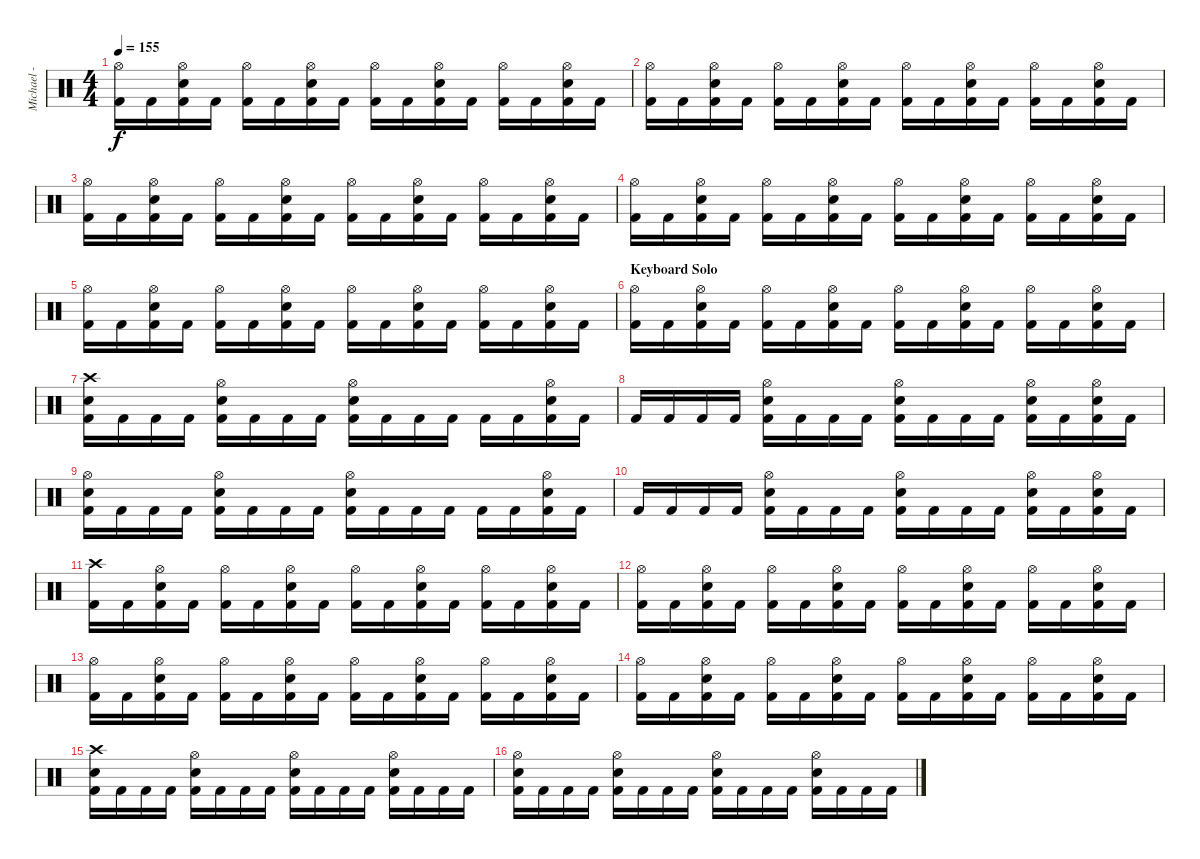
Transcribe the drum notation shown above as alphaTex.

\track ("Michael - Drums" "Michael - ") {instrument percussion}
\staff {score}
\articulation defaults
\ts (4 4)
\tempo 155
\clef neutral
\ks c
("Hi-Hat (open)" "Kick (hit) 2").16{dy f} "Kick (hit) 2".16 ("Hi-Hat (open)" "Electric Snare (hit)" "Kick (hit) 2").16 "Kick (hit) 2".16 ("Hi-Hat (open)" "Kick (hit) 2").16 "Kick (hit) 2".16 ("Hi-Hat (open)" "Electric Snare (hit)" "Kick (hit) 2").16 "Kick (hit) 2".16 ("Hi-Hat (open)" "Kick (hit) 2").16 "Kick (hit) 2".16 ("Hi-Hat (open)" "Electric Snare (hit)" "Kick (hit) 2").16 "Kick (hit) 2".16 ("Hi-Hat (open)" "Kick (hit) 2").16 "Kick (hit) 2".16 ("Hi-Hat (open)" "Electric Snare (hit)" "Kick (hit) 2").16 "Kick (hit) 2".16 |
("Hi-Hat (open)" "Kick (hit) 2").16 "Kick (hit) 2".16 ("Hi-Hat (open)" "Electric Snare (hit)" "Kick (hit) 2").16 "Kick (hit) 2".16 ("Hi-Hat (open)" "Kick (hit) 2").16 "Kick (hit) 2".16 ("Hi-Hat (open)" "Electric Snare (hit)" "Kick (hit) 2").16 "Kick (hit) 2".16 ("Hi-Hat (open)" "Kick (hit) 2").16 "Kick (hit) 2".16 ("Hi-Hat (open)" "Electric Snare (hit)" "Kick (hit) 2").16 "Kick (hit) 2".16 ("Hi-Hat (open)" "Kick (hit) 2").16 "Kick (hit) 2".16 ("Hi-Hat (open)" "Electric Snare (hit)" "Kick (hit) 2").16 "Kick (hit) 2".16 |
("Hi-Hat (open)" "Kick (hit) 2").16 "Kick (hit) 2".16 ("Hi-Hat (open)" "Electric Snare (hit)" "Kick (hit) 2").16 "Kick (hit) 2".16 ("Hi-Hat (open)" "Kick (hit) 2").16 "Kick (hit) 2".16 ("Hi-Hat (open)" "Electric Snare (hit)" "Kick (hit) 2").16 "Kick (hit) 2".16 ("Hi-Hat (open)" "Kick (hit) 2").16 "Kick (hit) 2".16 ("Hi-Hat (open)" "Electric Snare (hit)" "Kick (hit) 2").16 "Kick (hit) 2".16 ("Hi-Hat (open)" "Kick (hit) 2").16 "Kick (hit) 2".16 ("Hi-Hat (open)" "Electric Snare (hit)" "Kick (hit) 2").16 "Kick (hit) 2".16 |
("Hi-Hat (open)" "Kick (hit) 2").16 "Kick (hit) 2".16 ("Hi-Hat (open)" "Electric Snare (hit)" "Kick (hit) 2").16 "Kick (hit) 2".16 ("Hi-Hat (open)" "Kick (hit) 2").16 "Kick (hit) 2".16 ("Hi-Hat (open)" "Electric Snare (hit)" "Kick (hit) 2").16 "Kick (hit) 2".16 ("Hi-Hat (open)" "Kick (hit) 2").16 "Kick (hit) 2".16 ("Hi-Hat (open)" "Electric Snare (hit)" "Kick (hit) 2").16 "Kick (hit) 2".16 ("Hi-Hat (open)" "Kick (hit) 2").16 "Kick (hit) 2".16 ("Hi-Hat (open)" "Electric Snare (hit)" "Kick (hit) 2").16 "Kick (hit) 2".16 |
("Hi-Hat (open)" "Kick (hit) 2").16 "Kick (hit) 2".16 ("Hi-Hat (open)" "Electric Snare (hit)" "Kick (hit) 2").16 "Kick (hit) 2".16 ("Hi-Hat (open)" "Kick (hit) 2").16 "Kick (hit) 2".16 ("Hi-Hat (open)" "Electric Snare (hit)" "Kick (hit) 2").16 "Kick (hit) 2".16 ("Hi-Hat (open)" "Kick (hit) 2").16 "Kick (hit) 2".16 ("Hi-Hat (open)" "Electric Snare (hit)" "Kick (hit) 2").16 "Kick (hit) 2".16 ("Hi-Hat (open)" "Kick (hit) 2").16 "Kick (hit) 2".16 ("Hi-Hat (open)" "Electric Snare (hit)" "Kick (hit) 2").16 "Kick (hit) 2".16 |
\section ("" "Keyboard Solo")
("Hi-Hat (open)" "Kick (hit) 2").16 "Kick (hit) 2".16 ("Hi-Hat (open)" "Electric Snare (hit)" "Kick (hit) 2").16 "Kick (hit) 2".16 ("Hi-Hat (open)" "Kick (hit) 2").16 "Kick (hit) 2".16 ("Hi-Hat (open)" "Electric Snare (hit)" "Kick (hit) 2").16 "Kick (hit) 2".16 ("Hi-Hat (open)" "Kick (hit) 2").16 "Kick (hit) 2".16 ("Hi-Hat (open)" "Electric Snare (hit)" "Kick (hit) 2").16 "Kick (hit) 2".16 ("Hi-Hat (open)" "Kick (hit) 2").16 "Kick (hit) 2".16 ("Hi-Hat (open)" "Electric Snare (hit)" "Kick (hit) 2").16 "Kick (hit) 2".16 |
("Crash high (hit)" "Electric Snare (hit)" "Kick (hit) 2").16 "Kick (hit) 2".16 "Kick (hit) 2".16 "Kick (hit) 2".16 ("Hi-Hat (open)" "Electric Snare (hit)" "Kick (hit) 2").16 "Kick (hit) 2".16 "Kick (hit) 2".16 "Kick (hit) 2".16 ("Hi-Hat (open)" "Electric Snare (hit)" "Kick (hit) 2").16 "Kick (hit) 2".16 "Kick (hit) 2".16 "Kick (hit) 2".16 "Kick (hit) 2".16 "Kick (hit) 2".16 ("Hi-Hat (open)" "Electric Snare (hit)" "Kick (hit) 2").16 "Kick (hit) 2".16 |
"Kick (hit) 2".16 "Kick (hit) 2".16 "Kick (hit) 2".16 "Kick (hit) 2".16 ("Hi-Hat (open)" "Electric Snare (hit)" "Kick (hit) 2").16 "Kick (hit) 2".16 "Kick (hit) 2".16 "Kick (hit) 2".16 ("Hi-Hat (open)" "Electric Snare (hit)" "Kick (hit) 2").16 "Kick (hit) 2".16 "Kick (hit) 2".16 "Kick (hit) 2".16 ("Hi-Hat (open)" "Electric Snare (hit)" "Kick (hit) 2").16 "Kick (hit) 2".16 ("Hi-Hat (open)" "Electric Snare (hit)" "Kick (hit) 2").16 "Kick (hit) 2".16 |
("Hi-Hat (open)" "Electric Snare (hit)" "Kick (hit) 2").16 "Kick (hit) 2".16 "Kick (hit) 2".16 "Kick (hit) 2".16 ("Hi-Hat (open)" "Electric Snare (hit)" "Kick (hit) 2").16 "Kick (hit) 2".16 "Kick (hit) 2".16 "Kick (hit) 2".16 ("Hi-Hat (open)" "Electric Snare (hit)" "Kick (hit) 2").16 "Kick (hit) 2".16 "Kick (hit) 2".16 "Kick (hit) 2".16 "Kick (hit) 2".16 "Kick (hit) 2".16 ("Hi-Hat (open)" "Electric Snare (hit)" "Kick (hit) 2").16 "Kick (hit) 2".16 |
"Kick (hit) 2".16 "Kick (hit) 2".16 "Kick (hit) 2".16 "Kick (hit) 2".16 ("Hi-Hat (open)" "Electric Snare (hit)" "Kick (hit) 2").16 "Kick (hit) 2".16 "Kick (hit) 2".16 "Kick (hit) 2".16 ("Hi-Hat (open)" "Electric Snare (hit)" "Kick (hit) 2").16 "Kick (hit) 2".16 "Kick (hit) 2".16 "Kick (hit) 2".16 ("Hi-Hat (open)" "Electric Snare (hit)" "Kick (hit) 2").16 "Kick (hit) 2".16 ("Hi-Hat (open)" "Electric Snare (hit)" "Kick (hit) 2").16 "Kick (hit) 2".16 |
("Crash high (hit)" "Kick (hit) 2").16 "Kick (hit) 2".16 ("Hi-Hat (open)" "Electric Snare (hit)" "Kick (hit) 2").16 "Kick (hit) 2".16 ("Hi-Hat (open)" "Kick (hit) 2").16 "Kick (hit) 2".16 ("Hi-Hat (open)" "Electric Snare (hit)" "Kick (hit) 2").16 "Kick (hit) 2".16 ("Hi-Hat (open)" "Kick (hit) 2").16 "Kick (hit) 2".16 ("Hi-Hat (open)" "Electric Snare (hit)" "Kick (hit) 2").16 "Kick (hit) 2".16 ("Hi-Hat (open)" "Kick (hit) 2").16 "Kick (hit) 2".16 ("Hi-Hat (open)" "Electric Snare (hit)" "Kick (hit) 2").16 "Kick (hit) 2".16 |
("Hi-Hat (open)" "Kick (hit) 2").16 "Kick (hit) 2".16 ("Hi-Hat (open)" "Electric Snare (hit)" "Kick (hit) 2").16 "Kick (hit) 2".16 ("Hi-Hat (open)" "Kick (hit) 2").16 "Kick (hit) 2".16 ("Hi-Hat (open)" "Electric Snare (hit)" "Kick (hit) 2").16 "Kick (hit) 2".16 ("Hi-Hat (open)" "Kick (hit) 2").16 "Kick (hit) 2".16 ("Hi-Hat (open)" "Electric Snare (hit)" "Kick (hit) 2").16 "Kick (hit) 2".16 ("Hi-Hat (open)" "Kick (hit) 2").16 "Kick (hit) 2".16 ("Hi-Hat (open)" "Electric Snare (hit)" "Kick (hit) 2").16 "Kick (hit) 2".16 |
("Hi-Hat (open)" "Kick (hit) 2").16 "Kick (hit) 2".16 ("Hi-Hat (open)" "Electric Snare (hit)" "Kick (hit) 2").16 "Kick (hit) 2".16 ("Hi-Hat (open)" "Kick (hit) 2").16 "Kick (hit) 2".16 ("Hi-Hat (open)" "Electric Snare (hit)" "Kick (hit) 2").16 "Kick (hit) 2".16 ("Hi-Hat (open)" "Kick (hit) 2").16 "Kick (hit) 2".16 ("Hi-Hat (open)" "Electric Snare (hit)" "Kick (hit) 2").16 "Kick (hit) 2".16 ("Hi-Hat (open)" "Kick (hit) 2").16 "Kick (hit) 2".16 ("Hi-Hat (open)" "Electric Snare (hit)" "Kick (hit) 2").16 "Kick (hit) 2".16 |
("Hi-Hat (open)" "Kick (hit) 2").16 "Kick (hit) 2".16 ("Hi-Hat (open)" "Electric Snare (hit)" "Kick (hit) 2").16 "Kick (hit) 2".16 ("Hi-Hat (open)" "Kick (hit) 2").16 "Kick (hit) 2".16 ("Hi-Hat (open)" "Electric Snare (hit)" "Kick (hit) 2").16 "Kick (hit) 2".16 ("Hi-Hat (open)" "Kick (hit) 2").16 "Kick (hit) 2".16 ("Hi-Hat (open)" "Electric Snare (hit)" "Kick (hit) 2").16 "Kick (hit) 2".16 ("Hi-Hat (open)" "Kick (hit) 2").16 "Kick (hit) 2".16 ("Hi-Hat (open)" "Electric Snare (hit)" "Kick (hit) 2").16 "Kick (hit) 2".16 |
("Crash high (hit)" "Electric Snare (hit)" "Kick (hit) 2").16 "Kick (hit) 2".16 "Kick (hit) 2".16 "Kick (hit) 2".16 ("Hi-Hat (open)" "Electric Snare (hit)" "Kick (hit) 2").16 "Kick (hit) 2".16 "Kick (hit) 2".16 "Kick (hit) 2".16 ("Hi-Hat (open)" "Electric Snare (hit)" "Kick (hit) 2").16 "Kick (hit) 2".16 "Kick (hit) 2".16 "Kick (hit) 2".16 ("Hi-Hat (open)" "Electric Snare (hit)" "Kick (hit) 2").16 "Kick (hit) 2".16 "Kick (hit) 2".16 "Kick (hit) 2".16 |
("Hi-Hat (open)" "Electric Snare (hit)" "Kick (hit) 2").16 "Kick (hit) 2".16 "Kick (hit) 2".16 "Kick (hit) 2".16 ("Hi-Hat (open)" "Electric Snare (hit)" "Kick (hit) 2").16 "Kick (hit) 2".16 "Kick (hit) 2".16 "Kick (hit) 2".16 ("Hi-Hat (open)" "Electric Snare (hit)" "Kick (hit) 2").16 "Kick (hit) 2".16 "Kick (hit) 2".16 "Kick (hit) 2".16 ("Hi-Hat (open)" "Electric Snare (hit)" "Kick (hit) 2").16 "Kick (hit) 2".16 "Kick (hit) 2".16 "Kick (hit) 2".16
